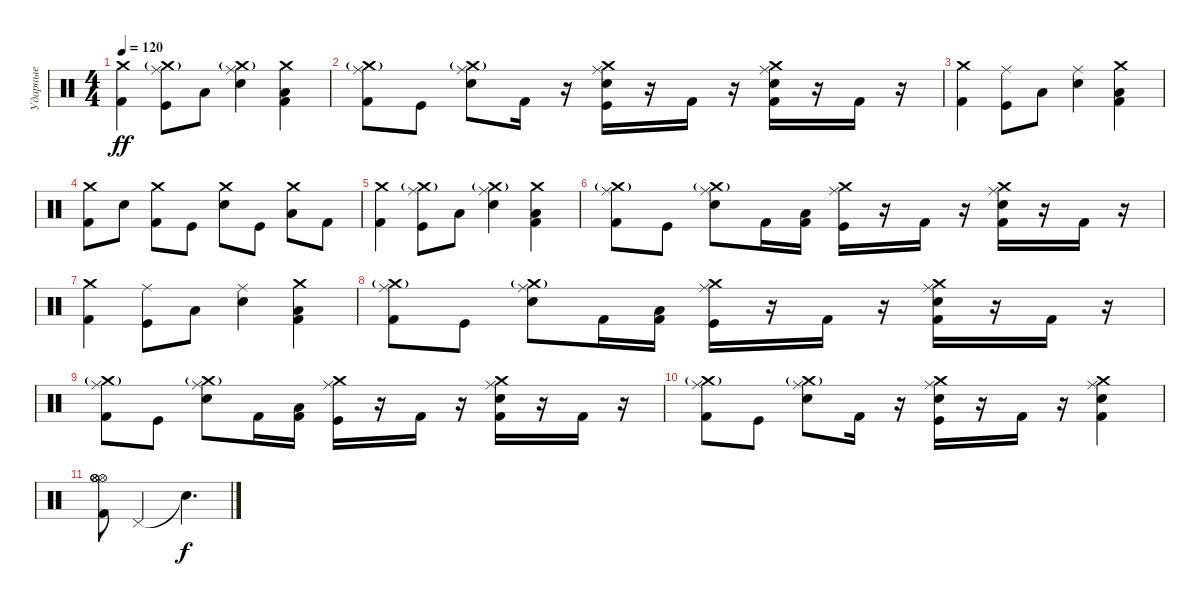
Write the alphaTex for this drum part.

\track ("Ударные" "Ударные") {instrument percussion}
\staff {score}
\articulation defaults
\ts (4 4)
\tempo 120
\clef neutral
\ks c
("Crash medium (hit)" "Kick (hit) 2").4{dy ff} ("Crash medium (hit)"{g} "Ride (middle)" "Kick (hit)").8 "Low Floor Tom (hit)".8 ("Crash medium (hit)"{g} "Ride (middle)" "Snare (hit) 2").4 ("Crash medium (hit)" "Kick (hit) 2" "Low Floor Tom (hit)").4 |
("Ride (middle)" "Crash medium (hit)"{g} "Kick (hit) 2").8 "Kick (hit)".8 ("Ride (middle)" "Crash medium (hit)"{g} "Snare (hit) 2").8 "Kick (hit) 2".16 r.16 ("Ride (middle)" "Crash medium (hit)" "Snare (hit) 2" "Kick (hit)").16 r.16 "Kick (hit) 2".16 r.16 ("Ride (middle)" "Crash medium (hit)" "Snare (hit) 2" "Kick (hit) 2").16 r.16 "Kick (hit) 2".16 r.16 |
("Crash medium (hit)" "Kick (hit) 2").4 ("Ride (middle)" "Kick (hit)").8 "Low Floor Tom (hit)".8 ("Ride (middle)" "Snare (hit) 2").4 ("Crash medium (hit)" "Kick (hit) 2" "Low Floor Tom (hit)").4 |
("Crash medium (hit)" "Kick (hit) 2").8 "Snare (hit) 2".8 ("Crash medium (hit)" "Kick (hit) 2").8 "Kick (hit)".8 ("Crash medium (hit)" "Snare (hit) 2").8 "Kick (hit)".8 ("Crash medium (hit)" "Low Floor Tom (hit)").8 "Kick (hit) 2".8 |
("Crash medium (hit)" "Kick (hit) 2").4 ("Crash medium (hit)"{g} "Ride (middle)" "Kick (hit)").8 "Low Floor Tom (hit)".8 ("Crash medium (hit)"{g} "Ride (middle)" "Snare (hit) 2").4 ("Crash medium (hit)" "Kick (hit) 2" "Low Floor Tom (hit)").4 |
("Ride (middle)" "Crash medium (hit)"{g} "Kick (hit) 2").8 "Kick (hit)".8 ("Ride (middle)" "Crash medium (hit)"{g} "Snare (hit) 2").8 "Kick (hit) 2".16 ("Low Floor Tom (hit)" "Kick (hit) 2").16{bd 240} ("Ride (middle)" "Crash medium (hit)" "Kick (hit)").16 r.16 "Kick (hit) 2".16 r.16 ("Ride (middle)" "Crash medium (hit)" "Snare (hit) 2" "Kick (hit) 2").16 r.16 "Kick (hit) 2".16 r.16 |
("Crash medium (hit)" "Kick (hit) 2").4 ("Ride (middle)" "Kick (hit)").8 "Low Floor Tom (hit)".8 ("Ride (middle)" "Snare (hit) 2").4 ("Crash medium (hit)" "Kick (hit) 2" "Low Floor Tom (hit)").4 |
("Ride (middle)" "Crash medium (hit)"{g} "Kick (hit) 2").8 "Kick (hit)".8 ("Ride (middle)" "Crash medium (hit)"{g} "Snare (hit) 2").8 "Kick (hit) 2".16 ("Low Floor Tom (hit)" "Kick (hit) 2").16{bd 240} ("Ride (middle)" "Crash medium (hit)" "Kick (hit)").16 r.16 "Kick (hit) 2".16 r.16 ("Ride (middle)" "Crash medium (hit)" "Snare (hit) 2" "Kick (hit) 2").16 r.16 "Kick (hit) 2".16 r.16 |
("Ride (middle)" "Crash medium (hit)"{g} "Kick (hit) 2").8 "Kick (hit)".8 ("Ride (middle)" "Crash medium (hit)"{g} "Snare (hit) 2").8 "Kick (hit) 2".16 ("Low Floor Tom (hit)" "Kick (hit) 2").16{bd 240} ("Ride (middle)" "Crash medium (hit)" "Kick (hit)").16 r.16 "Kick (hit) 2".16 r.16 ("Ride (middle)" "Crash medium (hit)" "Snare (hit) 2" "Kick (hit) 2").16 r.16 "Kick (hit) 2".16 r.16 |
("Ride (middle)" "Crash medium (hit)"{g} "Kick (hit) 2").8 "Kick (hit)".8 ("Ride (middle)" "Crash medium (hit)"{g} "Snare (hit) 2").8 "Kick (hit) 2".16 r.16 ("Ride (middle)" "Crash medium (hit)" "Snare (hit) 2" "Kick (hit)").16 r.16 "Kick (hit) 2".16 r.16 ("Ride (middle)" "Crash medium (hit)" "Snare (hit) 2" "Kick (hit) 2").4 |
("Hi-Hat (open)" "Hi-Hat (open)" "Hi-Hat (open)" "Hi-Hat (open)" "Kick (hit) 2").8 "Pedal Hi-Hat (hit)".2 "Snare (hit)"{t}.4{d dy f}
